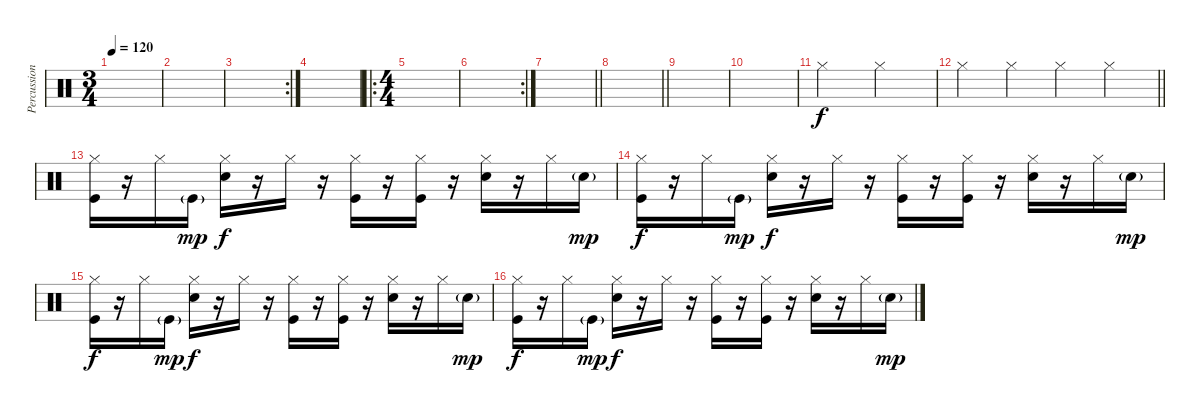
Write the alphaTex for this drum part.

\track ("Percussions" "Percussion") {instrument percussion}
\staff {score}
\articulation defaults
\ts (3 4)
\tempo 120
\clef neutral
\ks c
|
|
\rc 2
|
|
\ro
\ts (4 4)
|
\rc 2
|
\barLineRight lightlight
|
\barLineRight lightlight
|
|
|
"Hi-Hat (closed)".2 "Hi-Hat (closed)".2 |
\barLineRight lightlight "Hi-Hat (closed)".4 "Hi-Hat (closed)".4 "Hi-Hat (closed)".4 "Hi-Hat (closed)".4
|
("Hi-Hat (closed)" "Kick (hit)").16 r.16 "Hi-Hat (closed)".16 "Kick (hit)"{g}.16{dy mp} ("Hi-Hat (closed)" "Snare (hit) 2").16{dy f} r.16 "Hi-Hat (closed)".16 r.16 ("Hi-Hat (closed)" "Kick (hit)").16 r.16 ("Hi-Hat (closed)" "Kick (hit)").16 r.16 ("Hi-Hat (closed)" "Snare (hit) 2").16 r.16 "Hi-Hat (closed)".16 "Snare (hit) 2"{g}.16{dy mp} |
("Hi-Hat (closed)" "Kick (hit)").16{dy f} r.16 "Hi-Hat (closed)".16 "Kick (hit)"{g}.16{dy mp} ("Hi-Hat (closed)" "Snare (hit) 2").16{dy f} r.16 "Hi-Hat (closed)".16 r.16 ("Hi-Hat (closed)" "Kick (hit)").16 r.16 ("Hi-Hat (closed)" "Kick (hit)").16 r.16 ("Hi-Hat (closed)" "Snare (hit) 2").16 r.16 "Hi-Hat (closed)".16 "Snare (hit) 2"{g}.16{dy mp} |
("Hi-Hat (closed)" "Kick (hit)").16{dy f} r.16 "Hi-Hat (closed)".16 "Kick (hit)"{g}.16{dy mp} ("Hi-Hat (closed)" "Snare (hit) 2").16{dy f} r.16 "Hi-Hat (closed)".16 r.16 ("Hi-Hat (closed)" "Kick (hit)").16 r.16 ("Hi-Hat (closed)" "Kick (hit)").16 r.16 ("Hi-Hat (closed)" "Snare (hit) 2").16 r.16 "Hi-Hat (closed)".16 "Snare (hit) 2"{g}.16{dy mp} |
("Hi-Hat (closed)" "Kick (hit)").16{dy f} r.16 "Hi-Hat (closed)".16 "Kick (hit)"{g}.16{dy mp} ("Hi-Hat (closed)" "Snare (hit) 2").16{dy f} r.16 "Hi-Hat (closed)".16 r.16 ("Hi-Hat (closed)" "Kick (hit)").16 r.16 ("Hi-Hat (closed)" "Kick (hit)").16 r.16 ("Hi-Hat (closed)" "Snare (hit) 2").16 r.16 "Hi-Hat (closed)".16 "Snare (hit) 2"{g}.16{dy mp}
